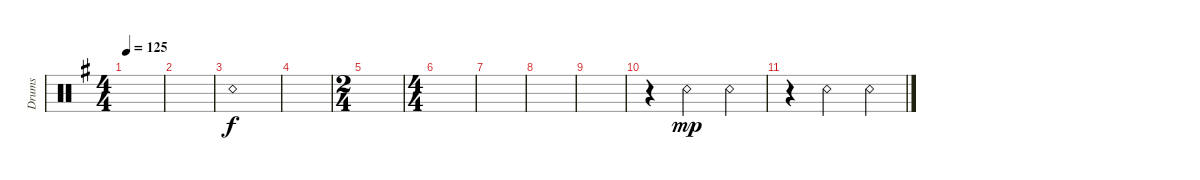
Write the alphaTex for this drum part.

\defaultSystemsLayout 4
\bracketExtendMode groupsimilarinstruments
\otherSystemsTrackNameOrientation horizontal
\track ("Drumkit" "Drums") {instrument percussion}
\staff {score}
\articulation defaults
\ts (4 4)
\tempo 125
\clef neutral
\scale
0.333333
\ks g
|
\scale
0.333333 |
\scale
0.262911 "Snare (rim shot)"{acc forcenatural}.1{beam Down} |
\scale
0.262911 |
\ts (2 4)
\scale
0.474178 |
\ts (4 4)
\scale
0.474178 |
\scale
0.262911 |
\scale
0.262911 |
\scale
0.333333 |
\scale
0.333333 r.4{beam Down} "Snare (rim shot)"{acc forcenatural}.2{dy mp beam Down} "Snare (rim shot)"{acc forcenatural}.4{beam Down} |
\scale
0.333333 r.4{beam Down} "Snare (rim shot)"{acc forcenatural}.2{beam Down} "Snare (rim shot)"{acc forcenatural}.4{beam Down} |
\scale
0.333333 |
\scale
0.333333 |
\scale
0.333333 |
\scale
0.333333 |
\scale
0.333333
